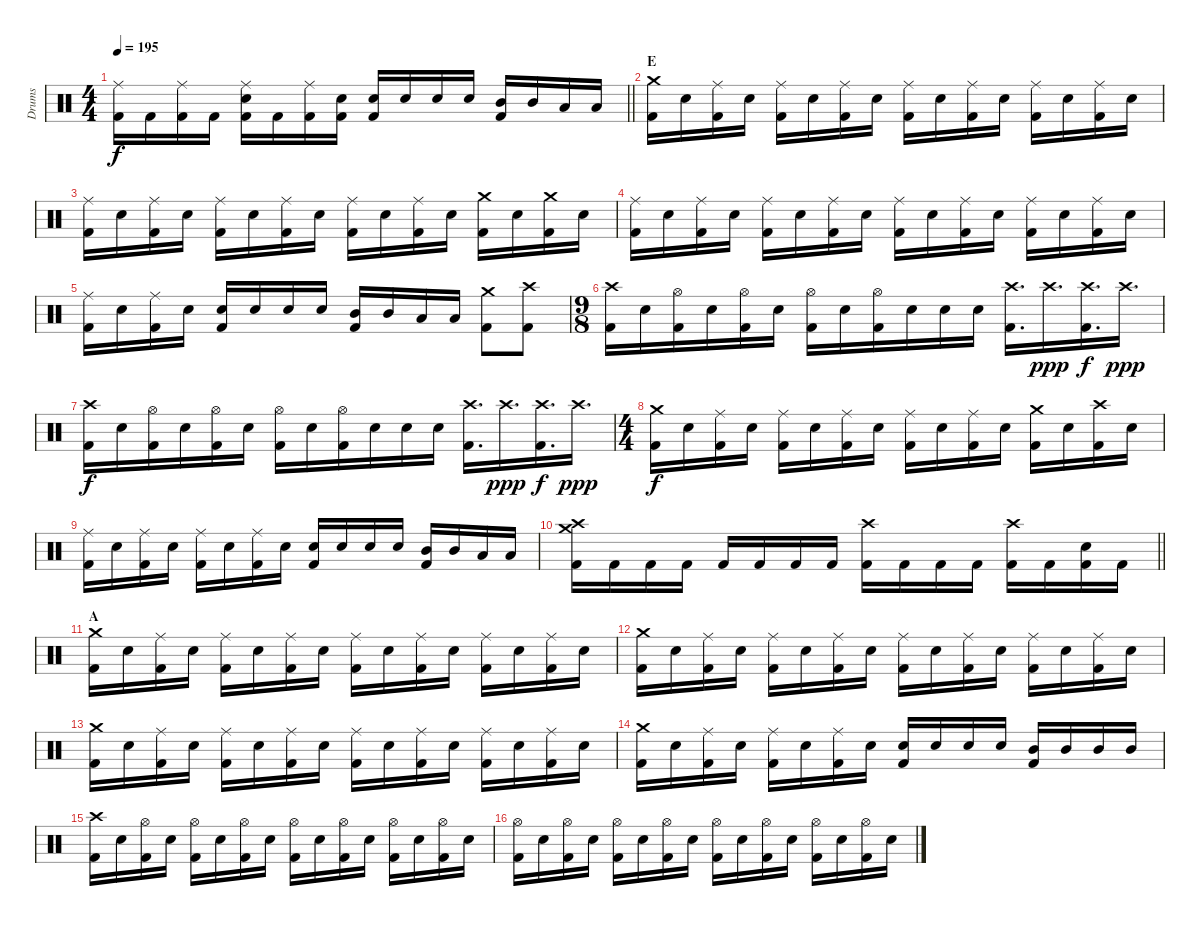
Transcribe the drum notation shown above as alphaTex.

\track ("Drums" "Drums") {instrument percussion}
\staff {score}
\articulation defaults
\ts (4 4)
\tempo 195
\clef neutral
\barLineRight lightlight
\ks c
("Ride (middle)" "Kick (hit) 2").16{dy f} "Kick (hit) 2".16 ("Ride (middle)" "Kick (hit) 2").16 "Kick (hit) 2".16 ("Ride (middle)" "Snare (hit) 2" "Kick (hit) 2").16 "Kick (hit) 2".16 ("Ride (middle)" "Kick (hit) 2").16 ("Snare (hit) 2" "Kick (hit) 2").16 ("Snare (hit) 2" "Kick (hit) 2").16 "Snare (hit) 2".16 "Snare (hit) 2".16 "Snare (hit) 2".16 ("Mid Tom (hit)" "Kick (hit) 2").16 "Mid Tom (hit)".16 "Low Tom (hit)".16 "Low Tom (hit)".16 |
\section ("" "E")
("Crash medium (hit)" "Kick (hit) 2").16 "Snare (hit) 2".16 ("Ride (middle)" "Kick (hit) 2").16 "Snare (hit) 2".16 ("Ride (middle)" "Kick (hit) 2").16 "Snare (hit) 2".16 ("Ride (middle)" "Kick (hit) 2").16 "Snare (hit) 2".16 ("Ride (middle)" "Kick (hit) 2").16 "Snare (hit) 2".16 ("Ride (middle)" "Kick (hit) 2").16 "Snare (hit) 2".16 ("Ride (middle)" "Kick (hit) 2").16 "Snare (hit) 2".16 ("Ride (middle)" "Kick (hit) 2").16 "Snare (hit) 2".16 |
("Ride (middle)" "Kick (hit) 2").16 "Snare (hit) 2".16 ("Ride (middle)" "Kick (hit) 2").16 "Snare (hit) 2".16 ("Ride (middle)" "Kick (hit) 2").16 "Snare (hit) 2".16 ("Ride (middle)" "Kick (hit) 2").16 "Snare (hit) 2".16 ("Ride (middle)" "Kick (hit) 2").16 "Snare (hit) 2".16 ("Ride (middle)" "Kick (hit) 2").16 "Snare (hit) 2".16 ("Crash medium (hit)" "Kick (hit) 2").16 "Snare (hit) 2".16 ("Crash medium (hit)" "Kick (hit) 2").16 "Snare (hit) 2".16 |
("Ride (middle)" "Kick (hit) 2").16 "Snare (hit) 2".16 ("Ride (middle)" "Kick (hit) 2").16 "Snare (hit) 2".16 ("Ride (middle)" "Kick (hit) 2").16 "Snare (hit) 2".16 ("Ride (middle)" "Kick (hit) 2").16 "Snare (hit) 2".16 ("Ride (middle)" "Kick (hit) 2").16 "Snare (hit) 2".16 ("Ride (middle)" "Kick (hit) 2").16 "Snare (hit) 2".16 ("Ride (middle)" "Kick (hit) 2").16 "Snare (hit) 2".16 ("Ride (middle)" "Kick (hit) 2").16 "Snare (hit) 2".16 |
("Ride (middle)" "Kick (hit) 2").16 "Snare (hit) 2".16 ("Ride (middle)" "Kick (hit) 2").16 "Snare (hit) 2".16 ("Snare (hit) 2" "Kick (hit) 2").16 "Snare (hit) 2".16 "Snare (hit) 2".16 "Snare (hit) 2".16 ("Mid Tom (hit)" "Kick (hit) 2").16 "Mid Tom (hit)".16 "Low Tom (hit)".16 "Low Tom (hit)".16 ("Crash medium (hit)" "Kick (hit) 2").8 ("Crash high (hit)" "Kick (hit) 2").8 |
\ts (9 8)
("Crash high (hit)" "Kick (hit) 2").16 "Snare (hit) 2".16 ("Hi-Hat (open)" "Kick (hit) 2").16 "Snare (hit) 2".16 ("Hi-Hat (open)" "Kick (hit) 2").16 "Snare (hit) 2".16 ("Hi-Hat (open)" "Kick (hit) 2").16 "Snare (hit) 2".16 ("Hi-Hat (open)" "Kick (hit) 2").16 "Snare (hit) 2".16 "Snare (hit) 2".16 "Snare (hit) 2".16 ("Crash high (hit)" "Kick (hit) 2").16{d} "Crash high (hit)".16{d dy ppp} ("Crash high (hit)" "Kick (hit) 2").16{d dy f} "Crash high (hit)".16{d dy ppp} |
("Crash high (hit)" "Kick (hit) 2").16{dy f} "Snare (hit) 2".16 ("Hi-Hat (open)" "Kick (hit) 2").16 "Snare (hit) 2".16 ("Hi-Hat (open)" "Kick (hit) 2").16 "Snare (hit) 2".16 ("Hi-Hat (open)" "Kick (hit) 2").16 "Snare (hit) 2".16 ("Hi-Hat (open)" "Kick (hit) 2").16 "Snare (hit) 2".16 "Snare (hit) 2".16 "Snare (hit) 2".16 ("Crash high (hit)" "Kick (hit) 2").16{d} "Crash high (hit)".16{d dy ppp} ("Crash high (hit)" "Kick (hit) 2").16{d dy f} "Crash high (hit)".16{d dy ppp} |
\ts (4 4)
("Crash medium (hit)" "Kick (hit) 2").16{dy f} "Snare (hit) 2".16 ("Ride (middle)" "Kick (hit) 2").16 "Snare (hit) 2".16 ("Ride (middle)" "Kick (hit) 2").16 "Snare (hit) 2".16 ("Ride (middle)" "Kick (hit) 2").16 "Snare (hit) 2".16 ("Ride (middle)" "Kick (hit) 2").16 "Snare (hit) 2".16 ("Ride (middle)" "Kick (hit) 2").16 "Snare (hit) 2".16 ("Crash medium (hit)" "Kick (hit) 2").16 "Snare (hit) 2".16 ("Crash high (hit)" "Kick (hit) 2").16 "Snare (hit) 2".16 |
("Ride (middle)" "Kick (hit) 2").16 "Snare (hit) 2".16 ("Ride (middle)" "Kick (hit) 2").16 "Snare (hit) 2".16 ("Ride (middle)" "Kick (hit) 2").16 "Snare (hit) 2".16 ("Ride (middle)" "Kick (hit) 2").16 "Snare (hit) 2".16 ("Snare (hit) 2" "Kick (hit) 2").16 "Snare (hit) 2".16 "Snare (hit) 2".16 "Snare (hit) 2".16 ("Mid Tom (hit)" "Kick (hit) 2").16 "Mid Tom (hit)".16 "Low Tom (hit)".16 "Low Tom (hit)".16 |
\barLineRight lightlight
("Crash high (hit)" "Crash medium (hit)" "Kick (hit) 2").16 "Kick (hit) 2".16 "Kick (hit) 2".16 "Kick (hit) 2".16 "Kick (hit) 2".16 "Kick (hit) 2".16 "Kick (hit) 2".16 "Kick (hit) 2".16 ("Crash high (hit)" "Kick (hit) 2").16 "Kick (hit) 2".16 "Kick (hit) 2".16 "Kick (hit) 2".16 ("Crash high (hit)" "Kick (hit) 2").16 "Kick (hit) 2".16 ("Snare (hit) 2" "Kick (hit) 2").16 "Kick (hit) 2".16 |
\section ("" "A")
("Crash medium (hit)" "Kick (hit) 2").16 "Snare (hit) 2".16 ("Ride (middle)" "Kick (hit) 2").16 "Snare (hit) 2".16 ("Ride (middle)" "Kick (hit) 2").16 "Snare (hit) 2".16 ("Ride (middle)" "Kick (hit) 2").16 "Snare (hit) 2".16 ("Ride (middle)" "Kick (hit) 2").16 "Snare (hit) 2".16 ("Ride (middle)" "Kick (hit) 2").16 "Snare (hit) 2".16 ("Ride (middle)" "Kick (hit) 2").16 "Snare (hit) 2".16 ("Ride (middle)" "Kick (hit) 2").16 "Snare (hit) 2".16 |
("Crash medium (hit)" "Kick (hit) 2").16 "Snare (hit) 2".16 ("Ride (middle)" "Kick (hit) 2").16 "Snare (hit) 2".16 ("Ride (middle)" "Kick (hit) 2").16 "Snare (hit) 2".16 ("Ride (middle)" "Kick (hit) 2").16 "Snare (hit) 2".16 ("Ride (middle)" "Kick (hit) 2").16 "Snare (hit) 2".16 ("Ride (middle)" "Kick (hit) 2").16 "Snare (hit) 2".16 ("Ride (middle)" "Kick (hit) 2").16 "Snare (hit) 2".16 ("Ride (middle)" "Kick (hit) 2").16 "Snare (hit) 2".16 |
("Crash medium (hit)" "Kick (hit) 2").16 "Snare (hit) 2".16 ("Ride (middle)" "Kick (hit) 2").16 "Snare (hit) 2".16 ("Ride (middle)" "Kick (hit) 2").16 "Snare (hit) 2".16 ("Ride (middle)" "Kick (hit) 2").16 "Snare (hit) 2".16 ("Ride (middle)" "Kick (hit) 2").16 "Snare (hit) 2".16 ("Ride (middle)" "Kick (hit) 2").16 "Snare (hit) 2".16 ("Ride (middle)" "Kick (hit) 2").16 "Snare (hit) 2".16 ("Ride (middle)" "Kick (hit) 2").16 "Snare (hit) 2".16 |
("Crash medium (hit)" "Kick (hit) 2").16 "Snare (hit) 2".16 ("Ride (middle)" "Kick (hit) 2").16 "Snare (hit) 2".16 ("Ride (middle)" "Kick (hit) 2").16 "Snare (hit) 2".16 ("Ride (middle)" "Kick (hit) 2").16 "Snare (hit) 2".16 ("Snare (hit) 2" "Kick (hit) 2").16 "Snare (hit) 2".16 "Snare (hit) 2".16 "Snare (hit) 2".16 ("Mid Tom (hit)" "Kick (hit) 2").16 "Mid Tom (hit)".16 "Mid Tom (hit)".16 "Mid Tom (hit)".16 |
("Crash high (hit)" "Kick (hit) 2").16 "Snare (hit) 2".16 ("Hi-Hat (open)" "Kick (hit) 2").16 "Snare (hit) 2".16 ("Hi-Hat (open)" "Kick (hit) 2").16 "Snare (hit) 2".16 ("Hi-Hat (open)" "Kick (hit) 2").16 "Snare (hit) 2".16 ("Hi-Hat (open)" "Kick (hit) 2").16 "Snare (hit) 2".16 ("Hi-Hat (open)" "Kick (hit) 2").16 "Snare (hit) 2".16 ("Hi-Hat (open)" "Kick (hit) 2").16 "Snare (hit) 2".16 ("Hi-Hat (open)" "Kick (hit) 2").16 "Snare (hit) 2".16 |
("Hi-Hat (open)" "Kick (hit) 2").16 "Snare (hit) 2".16 ("Hi-Hat (open)" "Kick (hit) 2").16 "Snare (hit) 2".16 ("Hi-Hat (open)" "Kick (hit) 2").16 "Snare (hit) 2".16 ("Hi-Hat (open)" "Kick (hit) 2").16 "Snare (hit) 2".16 ("Hi-Hat (open)" "Kick (hit) 2").16 "Snare (hit) 2".16 ("Hi-Hat (open)" "Kick (hit) 2").16 "Snare (hit) 2".16 ("Hi-Hat (open)" "Kick (hit) 2").16 "Snare (hit) 2".16 ("Hi-Hat (open)" "Kick (hit) 2").16 "Snare (hit) 2".16
